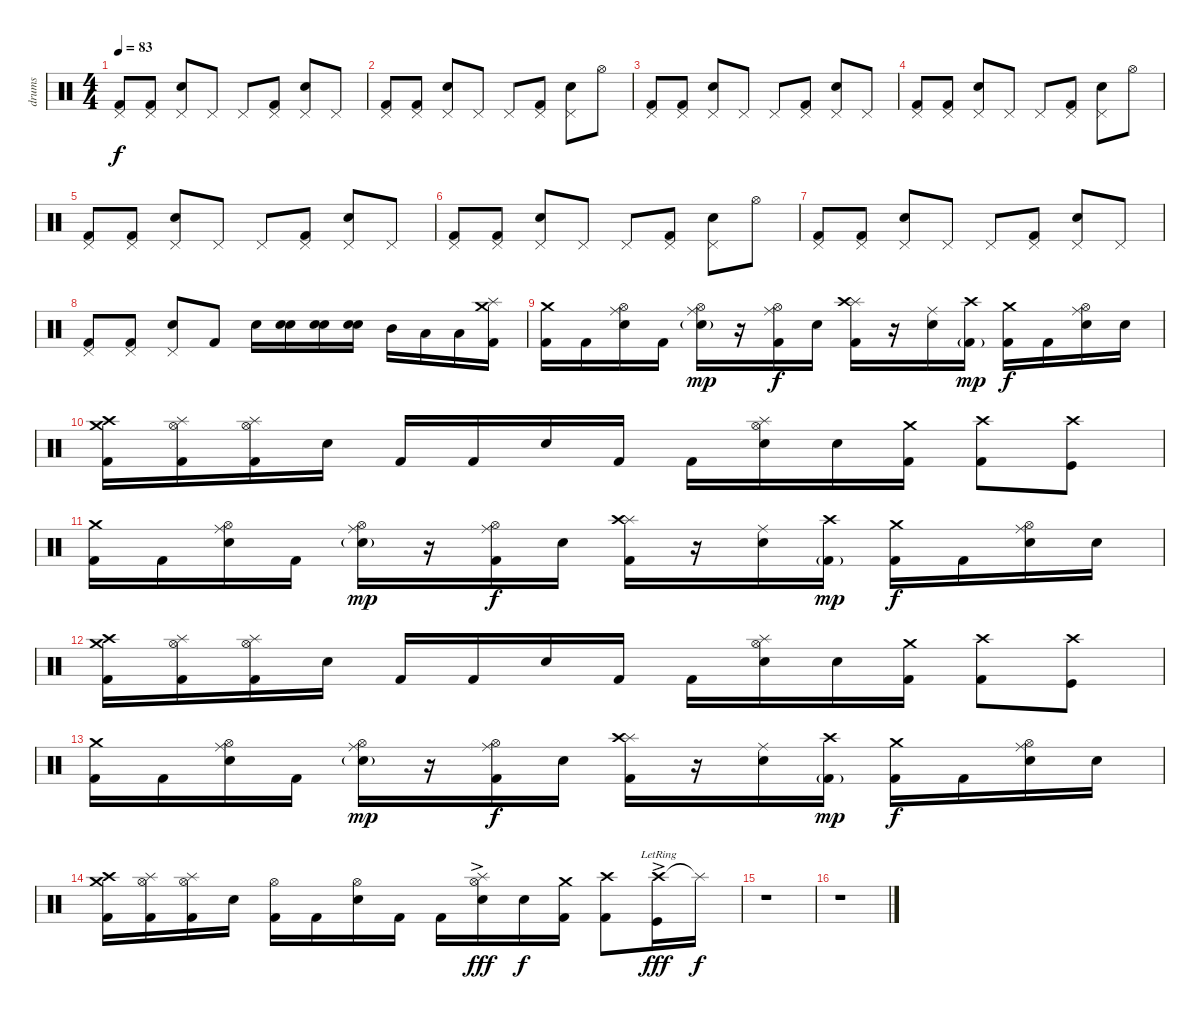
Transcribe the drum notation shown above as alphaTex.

\track ("drums" "drums") {instrument percussion}
\staff {score}
\articulation defaults
\ts (4 4)
\tempo 83
\clef neutral
\ks c
("Pedal Hi-Hat (hit)" "Kick (hit) 2").8{dy f} ("Pedal Hi-Hat (hit)" "Kick (hit) 2").8 ("Pedal Hi-Hat (hit)" "Electric Snare (hit)").8 "Pedal Hi-Hat (hit)".8 "Pedal Hi-Hat (hit)".8 ("Pedal Hi-Hat (hit)" "Kick (hit) 2").8 ("Pedal Hi-Hat (hit)" "Electric Snare (hit)").8 "Pedal Hi-Hat (hit)".8 |
("Pedal Hi-Hat (hit)" "Kick (hit) 2").8 ("Pedal Hi-Hat (hit)" "Kick (hit) 2").8 ("Pedal Hi-Hat (hit)" "Electric Snare (hit)").8 "Pedal Hi-Hat (hit)".8 "Pedal Hi-Hat (hit)".8 ("Pedal Hi-Hat (hit)" "Kick (hit) 2").8 ("Pedal Hi-Hat (hit)" "Electric Snare (hit)").8 "Hi-Hat (open)".8 |
("Pedal Hi-Hat (hit)" "Kick (hit) 2").8 ("Pedal Hi-Hat (hit)" "Kick (hit) 2").8 ("Pedal Hi-Hat (hit)" "Electric Snare (hit)").8 "Pedal Hi-Hat (hit)".8 "Pedal Hi-Hat (hit)".8 ("Pedal Hi-Hat (hit)" "Kick (hit) 2").8 ("Pedal Hi-Hat (hit)" "Electric Snare (hit)").8 "Pedal Hi-Hat (hit)".8 |
("Pedal Hi-Hat (hit)" "Kick (hit) 2").8 ("Pedal Hi-Hat (hit)" "Kick (hit) 2").8 ("Pedal Hi-Hat (hit)" "Electric Snare (hit)").8 "Pedal Hi-Hat (hit)".8 "Pedal Hi-Hat (hit)".8 ("Pedal Hi-Hat (hit)" "Kick (hit) 2").8 ("Pedal Hi-Hat (hit)" "Electric Snare (hit)").8 "Hi-Hat (open)".8 |
("Pedal Hi-Hat (hit)" "Kick (hit) 2").8 ("Pedal Hi-Hat (hit)" "Kick (hit) 2").8 ("Pedal Hi-Hat (hit)" "Electric Snare (hit)").8 "Pedal Hi-Hat (hit)".8 "Pedal Hi-Hat (hit)".8 ("Pedal Hi-Hat (hit)" "Kick (hit) 2").8 ("Pedal Hi-Hat (hit)" "Electric Snare (hit)").8 "Pedal Hi-Hat (hit)".8 |
("Pedal Hi-Hat (hit)" "Kick (hit) 2").8 ("Pedal Hi-Hat (hit)" "Kick (hit) 2").8 ("Pedal Hi-Hat (hit)" "Electric Snare (hit)").8 "Pedal Hi-Hat (hit)".8 "Pedal Hi-Hat (hit)".8 ("Pedal Hi-Hat (hit)" "Kick (hit) 2").8 ("Pedal Hi-Hat (hit)" "Electric Snare (hit)").8 "Hi-Hat (open)".8 |
("Pedal Hi-Hat (hit)" "Kick (hit) 2").8 ("Pedal Hi-Hat (hit)" "Kick (hit) 2").8 ("Pedal Hi-Hat (hit)" "Electric Snare (hit)").8 "Pedal Hi-Hat (hit)".8 "Pedal Hi-Hat (hit)".8 ("Pedal Hi-Hat (hit)" "Kick (hit) 2").8 ("Pedal Hi-Hat (hit)" "Electric Snare (hit)").8 "Pedal Hi-Hat (hit)".8 |
("Pedal Hi-Hat (hit)" "Kick (hit) 2").8 ("Pedal Hi-Hat (hit)" "Kick (hit) 2").8 ("Pedal Hi-Hat (hit)" "Electric Snare (hit)").8 "Kick (hit) 2".8 "Electric Snare (hit)".16 ("Snare (hit)" "Snare (hit)").16 ("Snare (hit)" "Electric Snare (hit)").16 ("Snare (hit)" "Electric Snare (hit)").16 "Mid Tom (hit)".16 "Low Tom (hit)".16 "Low Floor Tom (hit)".16 ("Crash medium (hit)" "Splash (hit)" "Kick (hit) 2").16 |
("Crash medium (hit)" "Kick (hit) 2").16 "Kick (hit) 2".16 ("Ride (middle)" "Hi-Hat (open)" "Electric Snare (hit)").16 "Kick (hit) 2".16 ("Ride (middle)" "Hi-Hat (open)" "Snare (hit) 2"{g}).16{dy mp} r.16 ("Ride (middle)" "Hi-Hat (open)" "Kick (hit) 2").16{dy f} "Snare (hit) 2".16 ("Splash (hit)" "Crash high (hit)" "Kick (hit) 2").16 r.16 ("Ride (middle)" "Snare (hit) 2").16 ("Crash high (hit)" "Kick (hit) 2"{g}).16{dy mp} ("Crash medium (hit)" "Kick (hit) 2").16{dy f} "Kick (hit) 2".16 ("Ride (middle)" "Hi-Hat (open)" "Electric Snare (hit)").16 "Snare (hit) 2".16 |
("Crash high (hit)" "Crash medium (hit)" "Kick (hit) 2").16 ("Splash (hit)" "Hi-Hat (open)" "Kick (hit) 2").16 ("Splash (hit)" "Hi-Hat (open)" "Kick (hit) 2").16 "Electric Snare (hit)".16 "Kick (hit) 2".16 "Kick (hit) 2".16 "Electric Snare (hit)".16 "Kick (hit) 2".16 "Kick (hit) 2".16 ("Splash (hit)" "Hi-Hat (open)" "Snare (hit) 2").16 "Electric Snare (hit)".16 ("Crash medium (hit)" "Kick (hit) 2").16 ("Crash high (hit)" "Kick (hit) 2").8 ("Crash high (hit)" "Kick (hit)").8 |
("Crash medium (hit)" "Kick (hit) 2").16 "Kick (hit) 2".16 ("Ride (middle)" "Hi-Hat (open)" "Electric Snare (hit)").16 "Kick (hit) 2".16 ("Ride (middle)" "Hi-Hat (open)" "Snare (hit) 2"{g}).16{dy mp} r.16 ("Ride (middle)" "Hi-Hat (open)" "Kick (hit) 2").16{dy f} "Snare (hit) 2".16 ("Splash (hit)" "Crash high (hit)" "Kick (hit) 2").16 r.16 ("Ride (middle)" "Snare (hit) 2").16 ("Crash high (hit)" "Kick (hit) 2"{g}).16{dy mp} ("Crash medium (hit)" "Kick (hit) 2").16{dy f} "Kick (hit) 2".16 ("Ride (middle)" "Hi-Hat (open)" "Electric Snare (hit)").16 "Snare (hit) 2".16 |
("Crash high (hit)" "Crash medium (hit)" "Kick (hit) 2").16 ("Splash (hit)" "Hi-Hat (open)" "Kick (hit) 2").16 ("Splash (hit)" "Hi-Hat (open)" "Kick (hit) 2").16 "Electric Snare (hit)".16 "Kick (hit) 2".16 "Kick (hit) 2".16 "Electric Snare (hit)".16 "Kick (hit) 2".16 "Kick (hit) 2".16 ("Splash (hit)" "Hi-Hat (open)" "Snare (hit) 2").16 "Electric Snare (hit)".16 ("Crash medium (hit)" "Kick (hit) 2").16 ("Crash high (hit)" "Kick (hit) 2").8 ("Crash high (hit)" "Kick (hit)").8 |
("Crash medium (hit)" "Kick (hit) 2").16 "Kick (hit) 2".16 ("Ride (middle)" "Hi-Hat (open)" "Electric Snare (hit)").16 "Kick (hit) 2".16 ("Ride (middle)" "Hi-Hat (open)" "Snare (hit) 2"{g}).16{dy mp} r.16 ("Ride (middle)" "Hi-Hat (open)" "Kick (hit) 2").16{dy f} "Snare (hit) 2".16 ("Splash (hit)" "Crash high (hit)" "Kick (hit) 2").16 r.16 ("Ride (middle)" "Snare (hit) 2").16 ("Crash high (hit)" "Kick (hit) 2"{g}).16{dy mp} ("Crash medium (hit)" "Kick (hit) 2").16{dy f} "Kick (hit) 2".16 ("Ride (middle)" "Hi-Hat (open)" "Electric Snare (hit)").16 "Snare (hit) 2".16 |
("Crash high (hit)" "Crash medium (hit)" "Kick (hit) 2").16 ("Splash (hit)" "Hi-Hat (open)" "Kick (hit) 2").16 ("Splash (hit)" "Hi-Hat (open)" "Kick (hit) 2").16 "Electric Snare (hit)".16 ("Hi-Hat (open)" "Kick (hit) 2").16 "Kick (hit) 2".16 ("Hi-Hat (open)" "Electric Snare (hit)").16 "Kick (hit) 2".16 "Kick (hit) 2".16 ("Splash (hit)"{ac} "Hi-Hat (open)" "Snare (hit) 2").16{dy fff} "Electric Snare (hit)".16{dy f} ("Crash medium (hit)" "Kick (hit) 2").16 ("Crash high (hit)" "Kick (hit) 2").8 ("Crash high (hit)"{ac lr} "Kick (hit)"{lr}).16{dy fff} "Splash (hit)"{t}.16{dy f} |
r.1 |
r.1
